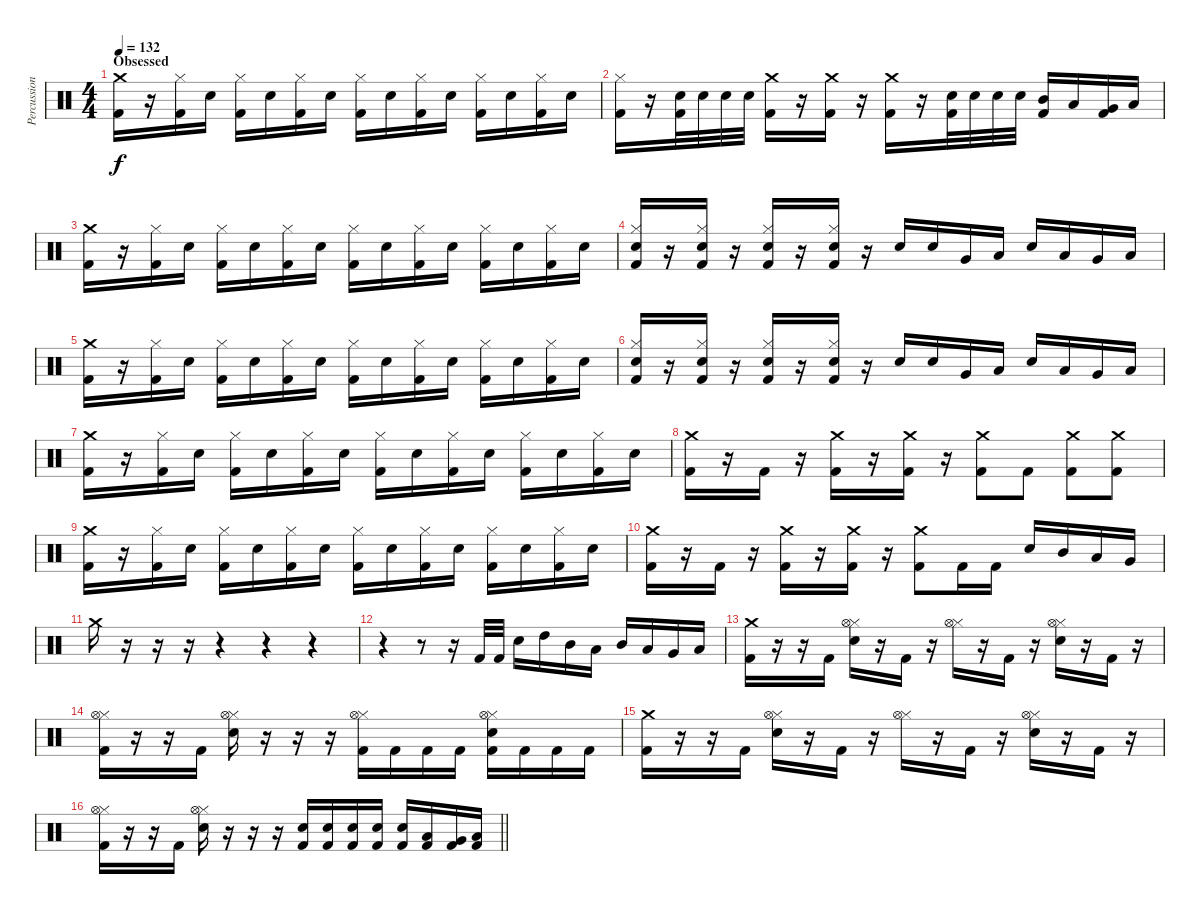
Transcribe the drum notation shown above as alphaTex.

\track ("Percussion" "Percussion") {instrument percussion}
\staff {score}
\articulation defaults
\ts (4 4)
\section ("" "Obsessed")
\tempo 132
\clef neutral
\ks c
("Crash medium (hit)" "Kick (hit) 2").16{dy f} r.16 ("Hi-Hat (closed)" "Kick (hit) 2").16 "Snare (hit) 2".16 ("Hi-Hat (closed)" "Kick (hit) 2").16 "Snare (hit) 2".16 ("Hi-Hat (closed)" "Kick (hit) 2").16 "Snare (hit) 2".16 ("Hi-Hat (closed)" "Kick (hit) 2").16 "Snare (hit) 2".16 ("Hi-Hat (closed)" "Kick (hit) 2").16 "Snare (hit) 2".16 ("Hi-Hat (closed)" "Kick (hit) 2").16 "Snare (hit) 2".16 ("Hi-Hat (closed)" "Kick (hit) 2").16 "Snare (hit) 2".16 |
("Hi-Hat (closed)" "Kick (hit) 2").16 r.16 ("Snare (hit) 2" "Kick (hit) 2").32 "Snare (hit) 2".32 "Snare (hit) 2".32 "Snare (hit) 2".32 ("Crash medium (hit)" "Kick (hit) 2").16 r.16 ("Crash medium (hit)" "Kick (hit) 2").16 r.16 ("Crash medium (hit)" "Kick (hit) 2").16 r.16 ("Snare (hit) 2" "Kick (hit) 2").32 "Snare (hit) 2".32 "Snare (hit) 2".32 "Snare (hit) 2".32 ("Mid Tom (hit)" "Kick (hit) 2").16 "Low Tom (hit)".16 ("Very Low Tom (hit)" "Kick (hit) 2").16 "Low Floor Tom (hit)".16 |
("Crash medium (hit)" "Kick (hit) 2").16 r.16 ("Hi-Hat (closed)" "Kick (hit) 2").16 "Snare (hit) 2".16 ("Hi-Hat (closed)" "Kick (hit) 2").16 "Snare (hit) 2".16 ("Hi-Hat (closed)" "Kick (hit) 2").16 "Snare (hit) 2".16 ("Hi-Hat (closed)" "Kick (hit) 2").16 "Snare (hit) 2".16 ("Hi-Hat (closed)" "Kick (hit) 2").16 "Snare (hit) 2".16 ("Hi-Hat (closed)" "Kick (hit) 2").16 "Snare (hit) 2".16 ("Hi-Hat (closed)" "Kick (hit) 2").16 "Snare (hit) 2".16 |
("Hi-Hat (closed)" "Snare (hit) 2" "Kick (hit) 2").16 r.16 ("Hi-Hat (closed)" "Snare (hit) 2" "Kick (hit) 2").16 r.16 ("Hi-Hat (closed)" "Snare (hit) 2" "Kick (hit) 2").16 r.16 ("Hi-Hat (closed)" "Snare (hit) 2" "Kick (hit) 2").16 r.16 "Snare (hit) 2".16 "Snare (hit) 2".16 "Very Low Tom (hit)".16 "Low Floor Tom (hit)".16 "Snare (hit) 2".16 "Low Tom (hit)".16 "Very Low Tom (hit)".16 "Low Floor Tom (hit)".16 |
("Crash medium (hit)" "Kick (hit) 2").16 r.16 ("Hi-Hat (closed)" "Kick (hit) 2").16 "Snare (hit) 2".16 ("Hi-Hat (closed)" "Kick (hit) 2").16 "Snare (hit) 2".16 ("Hi-Hat (closed)" "Kick (hit) 2").16 "Snare (hit) 2".16 ("Hi-Hat (closed)" "Kick (hit) 2").16 "Snare (hit) 2".16 ("Hi-Hat (closed)" "Kick (hit) 2").16 "Snare (hit) 2".16 ("Hi-Hat (closed)" "Kick (hit) 2").16 "Snare (hit) 2".16 ("Hi-Hat (closed)" "Kick (hit) 2").16 "Snare (hit) 2".16 |
("Hi-Hat (closed)" "Snare (hit) 2" "Kick (hit) 2").16 r.16 ("Hi-Hat (closed)" "Snare (hit) 2" "Kick (hit) 2").16 r.16 ("Hi-Hat (closed)" "Snare (hit) 2" "Kick (hit) 2").16 r.16 ("Hi-Hat (closed)" "Snare (hit) 2" "Kick (hit) 2").16 r.16 "Snare (hit) 2".16 "Snare (hit) 2".16 "Very Low Tom (hit)".16 "Low Floor Tom (hit)".16 "Snare (hit) 2".16 "Low Tom (hit)".16 "Very Low Tom (hit)".16 "Low Floor Tom (hit)".16 |
("Crash medium (hit)" "Kick (hit) 2").16 r.16 ("Hi-Hat (closed)" "Kick (hit) 2").16 "Snare (hit) 2".16 ("Hi-Hat (closed)" "Kick (hit) 2").16 "Snare (hit) 2".16 ("Hi-Hat (closed)" "Kick (hit) 2").16 "Snare (hit) 2".16 ("Hi-Hat (closed)" "Kick (hit) 2").16 "Snare (hit) 2".16 ("Hi-Hat (closed)" "Kick (hit) 2").16 "Snare (hit) 2".16 ("Hi-Hat (closed)" "Kick (hit) 2").16 "Snare (hit) 2".16 ("Hi-Hat (closed)" "Kick (hit) 2").16 "Snare (hit) 2".16 |
("Crash medium (hit)" "Kick (hit) 2").16 r.16 "Kick (hit) 2".16 r.16 ("Crash medium (hit)" "Kick (hit) 2").16 r.16 ("Crash medium (hit)" "Kick (hit) 2").16 r.16 ("Crash medium (hit)" "Kick (hit) 2").8 "Kick (hit) 2".8 ("Crash medium (hit)" "Kick (hit) 2").8 ("Crash medium (hit)" "Kick (hit) 2").8 |
("Crash medium (hit)" "Kick (hit) 2").16 r.16 ("Hi-Hat (closed)" "Kick (hit) 2").16 "Snare (hit) 2".16 ("Hi-Hat (closed)" "Kick (hit) 2").16 "Snare (hit) 2".16 ("Hi-Hat (closed)" "Kick (hit) 2").16 "Snare (hit) 2".16 ("Hi-Hat (closed)" "Kick (hit) 2").16 "Snare (hit) 2".16 ("Hi-Hat (closed)" "Kick (hit) 2").16 "Snare (hit) 2".16 ("Hi-Hat (closed)" "Kick (hit) 2").16 "Snare (hit) 2".16 ("Hi-Hat (closed)" "Kick (hit) 2").16 "Snare (hit) 2".16 |
("Crash medium (hit)" "Kick (hit) 2").16 r.16 "Kick (hit) 2".16 r.16 ("Crash medium (hit)" "Kick (hit) 2").16 r.16 ("Crash medium (hit)" "Kick (hit) 2").16 r.16 ("Crash medium (hit)" "Kick (hit) 2").8 "Kick (hit) 2".16 "Kick (hit) 2".16 "Snare (hit) 2".16 "Mid Tom (hit)".16 "Low Tom (hit)".16 "Very Low Tom (hit)".16 |
"Crash medium (hit)".16 r.16 r.16 r.16 r.4 r.4 r.4 |
r.4 r.8 r.16 "Kick (hit) 2".32 "Kick (hit) 2".32 "Snare (hit) 2".16 "High Tom (hit)".16 "Mid Tom (hit)".16 "Low Tom (hit)".16 "Mid Tom (hit)".16 "Low Tom (hit)".16 "Very Low Tom (hit)".16 "Low Floor Tom (hit)".16 |
("Crash medium (hit)" "Kick (hit) 2").16 r.16 r.16 "Kick (hit) 2".16 ("Hi-Hat (closed)" "Snare (hit) 2" "Hi-Hat (open)").16 r.16 "Kick (hit) 2".16 r.16 ("Hi-Hat (closed)" "Hi-Hat (open)").16 r.16 "Kick (hit) 2".16 r.16 ("Hi-Hat (closed)" "Snare (hit) 2" "Hi-Hat (open)").16 r.16 "Kick (hit) 2".16 r.16 |
("Hi-Hat (closed)" "Kick (hit) 2" "Hi-Hat (open)").16 r.16 r.16 "Kick (hit) 2".16 ("Hi-Hat (closed)" "Snare (hit) 2" "Hi-Hat (open)").16 r.16 r.16 r.16 ("Hi-Hat (closed)" "Kick (hit) 2" "Hi-Hat (open)").16 "Kick (hit) 2".16 "Kick (hit) 2".16 "Kick (hit) 2".16 ("Hi-Hat (closed)" "Snare (hit) 2" "Kick (hit) 2" "Hi-Hat (open)").16 "Kick (hit) 2".16 "Kick (hit) 2".16 "Kick (hit) 2".16 |
("Crash medium (hit)" "Kick (hit) 2").16 r.16 r.16 "Kick (hit) 2".16 ("Hi-Hat (closed)" "Snare (hit) 2" "Hi-Hat (open)").16 r.16 "Kick (hit) 2".16 r.16 ("Hi-Hat (closed)" "Hi-Hat (open)").16 r.16 "Kick (hit) 2".16 r.16 ("Hi-Hat (closed)" "Snare (hit) 2" "Hi-Hat (open)").16 r.16 "Kick (hit) 2".16 r.16 |
\barLineRight lightlight
("Hi-Hat (closed)" "Kick (hit) 2" "Hi-Hat (open)").16 r.16 r.16 "Kick (hit) 2".16 ("Hi-Hat (closed)" "Snare (hit) 2" "Hi-Hat (open)").16 r.16 r.16 r.16 ("Snare (hit) 2" "Kick (hit) 2").16 ("Snare (hit) 2" "Kick (hit) 2").16 ("Snare (hit) 2" "Kick (hit) 2").16 ("Snare (hit) 2" "Kick (hit) 2").16 ("Snare (hit) 2" "Kick (hit) 2").16 ("Low Tom (hit)" "Kick (hit) 2").16 ("Very Low Tom (hit)" "Kick (hit) 2").16 ("Low Floor Tom (hit)" "Kick (hit) 2").16
